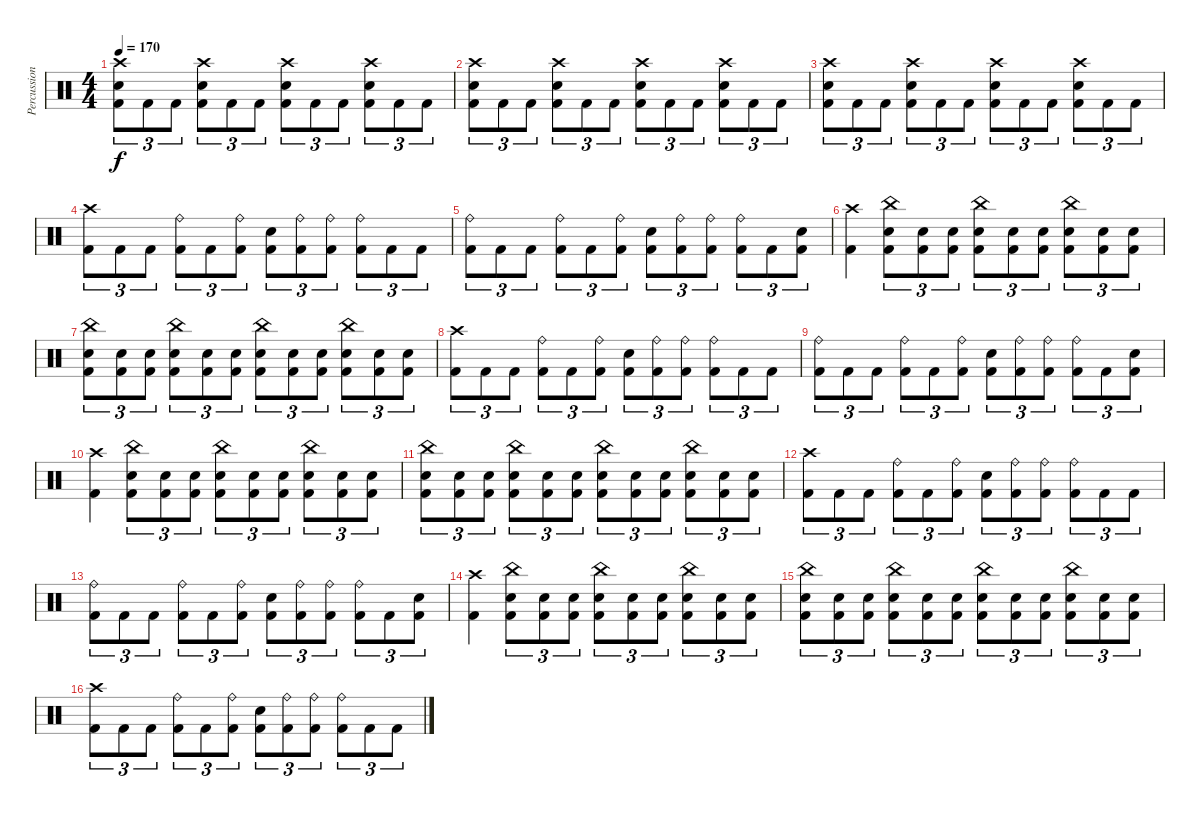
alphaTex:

\track ("Percussion" "Percussion") {instrument percussion}
\staff {score}
\articulation defaults
\ts (4 4)
\tempo 170
\clef neutral
\ks c
("Crash high (hit)" "Electric Snare (hit)" "Kick (hit) 2").8{tu (3 2) dy f} "Kick (hit) 2".8{tu (3 2)} "Kick (hit) 2".8{tu (3 2)} ("Crash high (hit)" "Electric Snare (hit)" "Kick (hit) 2").8{tu (3 2)} "Kick (hit) 2".8{tu (3 2)} "Kick (hit) 2".8{tu (3 2)} ("Crash high (hit)" "Electric Snare (hit)" "Kick (hit) 2").8{tu (3 2)} "Kick (hit) 2".8{tu (3 2)} "Kick (hit) 2".8{tu (3 2)} ("Crash high (hit)" "Electric Snare (hit)" "Kick (hit) 2").8{tu (3 2)} "Kick (hit) 2".8{tu (3 2)} "Kick (hit) 2".8{tu (3 2)} |
("Crash high (hit)" "Electric Snare (hit)" "Kick (hit) 2").8{tu (3 2)} "Kick (hit) 2".8{tu (3 2)} "Kick (hit) 2".8{tu (3 2)} ("Crash high (hit)" "Electric Snare (hit)" "Kick (hit) 2").8{tu (3 2)} "Kick (hit) 2".8{tu (3 2)} "Kick (hit) 2".8{tu (3 2)} ("Crash high (hit)" "Electric Snare (hit)" "Kick (hit) 2").8{tu (3 2)} "Kick (hit) 2".8{tu (3 2)} "Kick (hit) 2".8{tu (3 2)} ("Crash high (hit)" "Electric Snare (hit)" "Kick (hit) 2").8{tu (3 2)} "Kick (hit) 2".8{tu (3 2)} "Kick (hit) 2".8{tu (3 2)} |
("Crash high (hit)" "Electric Snare (hit)" "Kick (hit) 2").8{tu (3 2)} "Kick (hit) 2".8{tu (3 2)} "Kick (hit) 2".8{tu (3 2)} ("Crash high (hit)" "Electric Snare (hit)" "Kick (hit) 2").8{tu (3 2)} "Kick (hit) 2".8{tu (3 2)} "Kick (hit) 2".8{tu (3 2)} ("Crash high (hit)" "Electric Snare (hit)" "Kick (hit) 2").8{tu (3 2)} "Kick (hit) 2".8{tu (3 2)} "Kick (hit) 2".8{tu (3 2)} ("Crash high (hit)" "Electric Snare (hit)" "Kick (hit) 2").8{tu (3 2)} "Kick (hit) 2".8{tu (3 2)} "Kick (hit) 2".8{tu (3 2)} |
("Crash high (hit)" "Kick (hit) 2").8{tu (3 2)} "Kick (hit) 2".8{tu (3 2)} "Kick (hit) 2".8{tu (3 2)} ("Ride (bell)" "Kick (hit) 2").8{tu (3 2)} "Kick (hit) 2".8{tu (3 2)} ("Ride (bell)" "Kick (hit) 2").8{tu (3 2)} ("Electric Snare (hit)" "Kick (hit) 2").8{tu (3 2)} ("Ride (bell)" "Kick (hit) 2").8{tu (3 2)} ("Ride (bell)" "Kick (hit) 2").8{tu (3 2)} ("Ride (bell)" "Kick (hit) 2").8{tu (3 2)} "Kick (hit) 2".8{tu (3 2)} "Kick (hit) 2".8{tu (3 2)} |
("Ride (bell)" "Kick (hit) 2").8{tu (3 2)} "Kick (hit) 2".8{tu (3 2)} "Kick (hit) 2".8{tu (3 2)} ("Ride (bell)" "Kick (hit) 2").8{tu (3 2)} "Kick (hit) 2".8{tu (3 2)} ("Ride (bell)" "Kick (hit) 2").8{tu (3 2)} ("Electric Snare (hit)" "Kick (hit) 2").8{tu (3 2)} ("Ride (bell)" "Kick (hit) 2").8{tu (3 2)} ("Ride (bell)" "Kick (hit) 2").8{tu (3 2)} ("Ride (bell)" "Kick (hit) 2").8{tu (3 2)} "Kick (hit) 2".8{tu (3 2)} ("Electric Snare (hit)" "Kick (hit) 2").8{tu (3 2)} |
("Crash high (hit)" "Kick (hit) 2").4 ("China (hit)" "Electric Snare (hit)" "Kick (hit) 2").8{tu (3 2)} ("Electric Snare (hit)" "Kick (hit) 2").8{tu (3 2)} ("Electric Snare (hit)" "Kick (hit) 2").8{tu (3 2)} ("China (hit)" "Electric Snare (hit)" "Kick (hit) 2").8{tu (3 2)} ("Electric Snare (hit)" "Kick (hit) 2").8{tu (3 2)} ("Electric Snare (hit)" "Kick (hit) 2").8{tu (3 2)} ("China (hit)" "Electric Snare (hit)" "Kick (hit) 2").8{tu (3 2)} ("Electric Snare (hit)" "Kick (hit) 2").8{tu (3 2)} ("Electric Snare (hit)" "Kick (hit) 2").8{tu (3 2)} |
("China (hit)" "Electric Snare (hit)" "Kick (hit) 2").8{tu (3 2)} ("Electric Snare (hit)" "Kick (hit) 2").8{tu (3 2)} ("Electric Snare (hit)" "Kick (hit) 2").8{tu (3 2)} ("China (hit)" "Electric Snare (hit)" "Kick (hit) 2").8{tu (3 2)} ("Electric Snare (hit)" "Kick (hit) 2").8{tu (3 2)} ("Electric Snare (hit)" "Kick (hit) 2").8{tu (3 2)} ("China (hit)" "Electric Snare (hit)" "Kick (hit) 2").8{tu (3 2)} ("Electric Snare (hit)" "Kick (hit) 2").8{tu (3 2)} ("Electric Snare (hit)" "Kick (hit) 2").8{tu (3 2)} ("China (hit)" "Electric Snare (hit)" "Kick (hit) 2").8{tu (3 2)} ("Electric Snare (hit)" "Kick (hit) 2").8{tu (3 2)} ("Electric Snare (hit)" "Kick (hit) 2").8{tu (3 2)} |
("Crash high (hit)" "Kick (hit) 2").8{tu (3 2)} "Kick (hit) 2".8{tu (3 2)} "Kick (hit) 2".8{tu (3 2)} ("Ride (bell)" "Kick (hit) 2").8{tu (3 2)} "Kick (hit) 2".8{tu (3 2)} ("Ride (bell)" "Kick (hit) 2").8{tu (3 2)} ("Electric Snare (hit)" "Kick (hit) 2").8{tu (3 2)} ("Ride (bell)" "Kick (hit) 2").8{tu (3 2)} ("Ride (bell)" "Kick (hit) 2").8{tu (3 2)} ("Ride (bell)" "Kick (hit) 2").8{tu (3 2)} "Kick (hit) 2".8{tu (3 2)} "Kick (hit) 2".8{tu (3 2)} |
("Ride (bell)" "Kick (hit) 2").8{tu (3 2)} "Kick (hit) 2".8{tu (3 2)} "Kick (hit) 2".8{tu (3 2)} ("Ride (bell)" "Kick (hit) 2").8{tu (3 2)} "Kick (hit) 2".8{tu (3 2)} ("Ride (bell)" "Kick (hit) 2").8{tu (3 2)} ("Electric Snare (hit)" "Kick (hit) 2").8{tu (3 2)} ("Ride (bell)" "Kick (hit) 2").8{tu (3 2)} ("Ride (bell)" "Kick (hit) 2").8{tu (3 2)} ("Ride (bell)" "Kick (hit) 2").8{tu (3 2)} "Kick (hit) 2".8{tu (3 2)} ("Electric Snare (hit)" "Kick (hit) 2").8{tu (3 2)} |
("Crash high (hit)" "Kick (hit) 2").4 ("China (hit)" "Electric Snare (hit)" "Kick (hit) 2").8{tu (3 2)} ("Electric Snare (hit)" "Kick (hit) 2").8{tu (3 2)} ("Electric Snare (hit)" "Kick (hit) 2").8{tu (3 2)} ("China (hit)" "Electric Snare (hit)" "Kick (hit) 2").8{tu (3 2)} ("Electric Snare (hit)" "Kick (hit) 2").8{tu (3 2)} ("Electric Snare (hit)" "Kick (hit) 2").8{tu (3 2)} ("China (hit)" "Electric Snare (hit)" "Kick (hit) 2").8{tu (3 2)} ("Electric Snare (hit)" "Kick (hit) 2").8{tu (3 2)} ("Electric Snare (hit)" "Kick (hit) 2").8{tu (3 2)} |
("China (hit)" "Electric Snare (hit)" "Kick (hit) 2").8{tu (3 2)} ("Electric Snare (hit)" "Kick (hit) 2").8{tu (3 2)} ("Electric Snare (hit)" "Kick (hit) 2").8{tu (3 2)} ("China (hit)" "Electric Snare (hit)" "Kick (hit) 2").8{tu (3 2)} ("Electric Snare (hit)" "Kick (hit) 2").8{tu (3 2)} ("Electric Snare (hit)" "Kick (hit) 2").8{tu (3 2)} ("China (hit)" "Electric Snare (hit)" "Kick (hit) 2").8{tu (3 2)} ("Electric Snare (hit)" "Kick (hit) 2").8{tu (3 2)} ("Electric Snare (hit)" "Kick (hit) 2").8{tu (3 2)} ("China (hit)" "Electric Snare (hit)" "Kick (hit) 2").8{tu (3 2)} ("Electric Snare (hit)" "Kick (hit) 2").8{tu (3 2)} ("Electric Snare (hit)" "Kick (hit) 2").8{tu (3 2)} |
("Crash high (hit)" "Kick (hit) 2").8{tu (3 2)} "Kick (hit) 2".8{tu (3 2)} "Kick (hit) 2".8{tu (3 2)} ("Ride (bell)" "Kick (hit) 2").8{tu (3 2)} "Kick (hit) 2".8{tu (3 2)} ("Ride (bell)" "Kick (hit) 2").8{tu (3 2)} ("Electric Snare (hit)" "Kick (hit) 2").8{tu (3 2)} ("Ride (bell)" "Kick (hit) 2").8{tu (3 2)} ("Ride (bell)" "Kick (hit) 2").8{tu (3 2)} ("Ride (bell)" "Kick (hit) 2").8{tu (3 2)} "Kick (hit) 2".8{tu (3 2)} "Kick (hit) 2".8{tu (3 2)} |
("Ride (bell)" "Kick (hit) 2").8{tu (3 2)} "Kick (hit) 2".8{tu (3 2)} "Kick (hit) 2".8{tu (3 2)} ("Ride (bell)" "Kick (hit) 2").8{tu (3 2)} "Kick (hit) 2".8{tu (3 2)} ("Ride (bell)" "Kick (hit) 2").8{tu (3 2)} ("Electric Snare (hit)" "Kick (hit) 2").8{tu (3 2)} ("Ride (bell)" "Kick (hit) 2").8{tu (3 2)} ("Ride (bell)" "Kick (hit) 2").8{tu (3 2)} ("Ride (bell)" "Kick (hit) 2").8{tu (3 2)} "Kick (hit) 2".8{tu (3 2)} ("Electric Snare (hit)" "Kick (hit) 2").8{tu (3 2)} |
("Crash high (hit)" "Kick (hit) 2").4 ("China (hit)" "Electric Snare (hit)" "Kick (hit) 2").8{tu (3 2)} ("Electric Snare (hit)" "Kick (hit) 2").8{tu (3 2)} ("Electric Snare (hit)" "Kick (hit) 2").8{tu (3 2)} ("China (hit)" "Electric Snare (hit)" "Kick (hit) 2").8{tu (3 2)} ("Electric Snare (hit)" "Kick (hit) 2").8{tu (3 2)} ("Electric Snare (hit)" "Kick (hit) 2").8{tu (3 2)} ("China (hit)" "Electric Snare (hit)" "Kick (hit) 2").8{tu (3 2)} ("Electric Snare (hit)" "Kick (hit) 2").8{tu (3 2)} ("Electric Snare (hit)" "Kick (hit) 2").8{tu (3 2)} |
("China (hit)" "Electric Snare (hit)" "Kick (hit) 2").8{tu (3 2)} ("Electric Snare (hit)" "Kick (hit) 2").8{tu (3 2)} ("Electric Snare (hit)" "Kick (hit) 2").8{tu (3 2)} ("China (hit)" "Electric Snare (hit)" "Kick (hit) 2").8{tu (3 2)} ("Electric Snare (hit)" "Kick (hit) 2").8{tu (3 2)} ("Electric Snare (hit)" "Kick (hit) 2").8{tu (3 2)} ("China (hit)" "Electric Snare (hit)" "Kick (hit) 2").8{tu (3 2)} ("Electric Snare (hit)" "Kick (hit) 2").8{tu (3 2)} ("Electric Snare (hit)" "Kick (hit) 2").8{tu (3 2)} ("China (hit)" "Electric Snare (hit)" "Kick (hit) 2").8{tu (3 2)} ("Electric Snare (hit)" "Kick (hit) 2").8{tu (3 2)} ("Electric Snare (hit)" "Kick (hit) 2").8{tu (3 2)} |
("Crash high (hit)" "Kick (hit) 2").8{tu (3 2)} "Kick (hit) 2".8{tu (3 2)} "Kick (hit) 2".8{tu (3 2)} ("Ride (bell)" "Kick (hit) 2").8{tu (3 2)} "Kick (hit) 2".8{tu (3 2)} ("Ride (bell)" "Kick (hit) 2").8{tu (3 2)} ("Electric Snare (hit)" "Kick (hit) 2").8{tu (3 2)} ("Ride (bell)" "Kick (hit) 2").8{tu (3 2)} ("Ride (bell)" "Kick (hit) 2").8{tu (3 2)} ("Ride (bell)" "Kick (hit) 2").8{tu (3 2)} "Kick (hit) 2".8{tu (3 2)} "Kick (hit) 2".8{tu (3 2)}
